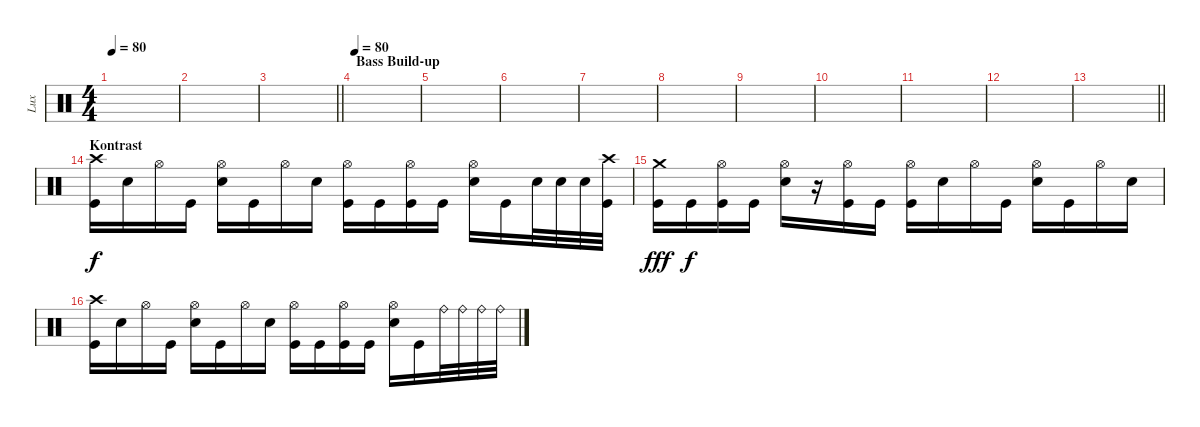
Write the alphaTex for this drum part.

\track ("Lux" "Lux") {instrument percussion}
\staff {score}
\articulation defaults
\ts (4 4)
\tempo 80
\clef neutral
\ks c
|
|
\barLineRight lightlight
|
\section ("" "Bass Build-up")
\tempo 80
|
|
|
|
|
|
|
|
|
\barLineRight lightlight
|
\section ("" "Kontrast")
("Crash high (hit)" "Kick (hit)").16 "Snare (hit) 2".16 "Hi-Hat (open)".16 "Kick (hit)".16 ("Hi-Hat (open)" "Snare (hit) 2").16 "Kick (hit)".16 "Hi-Hat (open)".16 "Snare (hit) 2".16 ("Hi-Hat (open)" "Kick (hit)").16 "Kick (hit)".16 ("Hi-Hat (open)" "Kick (hit)").16 "Kick (hit)".16 ("Hi-Hat (open)" "Snare (hit) 2").16 "Kick (hit)".16 "Snare (hit) 2".32 "Snare (hit) 2".32 "Snare (hit) 2".32 ("Crash high (hit)" "Kick (hit)").32 |
("Crash medium (hit)" "Kick (hit)").16{dy fff} "Kick (hit)".16{dy f} ("Hi-Hat (open)" "Kick (hit)").16 "Kick (hit)".16 ("Hi-Hat (open)" "Snare (hit) 2").16 r.16 ("Hi-Hat (open)" "Kick (hit)").16 "Kick (hit)".16 ("Hi-Hat (open)" "Kick (hit)").16 "Snare (hit) 2".16 "Hi-Hat (open)".16 "Kick (hit)".16 ("Hi-Hat (open)" "Snare (hit) 2").16 "Kick (hit)".16 "Hi-Hat (open)".16 "Snare (hit) 2".16 |
("Crash high (hit)" "Kick (hit)").16 "Snare (hit) 2".16 "Hi-Hat (open)".16 "Kick (hit)".16 ("Hi-Hat (open)" "Snare (hit) 2").16 "Kick (hit)".16 "Hi-Hat (open)".16 "Snare (hit) 2".16 ("Hi-Hat (open)" "Kick (hit)").16 "Kick (hit)".16 ("Hi-Hat (open)" "Kick (hit)").16 "Kick (hit)".16 ("Hi-Hat (open)" "Snare (hit) 2").16 "Kick (hit)".16 "Ride (bell)".32 "Ride (bell)".32 "Ride (bell)".32 "Ride (bell)".32
